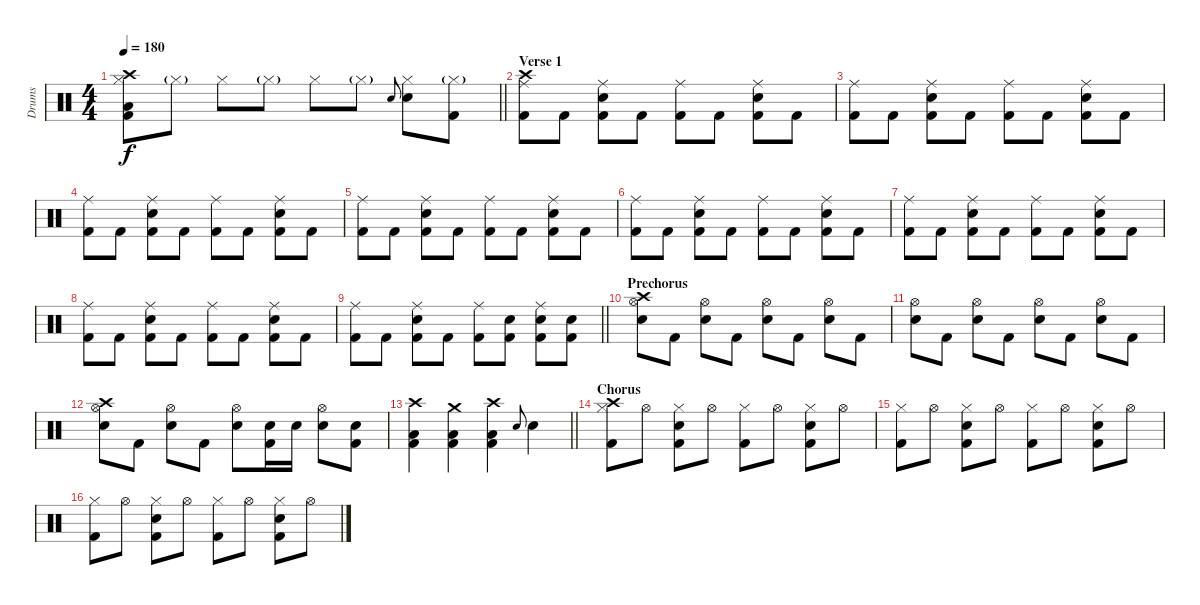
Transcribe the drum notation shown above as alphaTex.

\track ("Drums" "Drums") {instrument percussion}
\staff {score}
\articulation defaults
\ts (4 4)
\tempo 180
\clef neutral
\barLineRight lightlight
\ks c
("Crash high (hit)" "Hi-Hat (closed)" "Low Floor Tom (hit)" "Kick (hit) 2").8{dy f} "Hi-Hat (closed)"{g}.8 "Hi-Hat (closed)".8 "Hi-Hat (closed)"{g}.8 "Hi-Hat (closed)".8 "Hi-Hat (closed)"{g}.8 "Snare (hit) 2".8{gr onbeat} ("Hi-Hat (closed)" "Snare (hit) 2").8 ("Hi-Hat (closed)"{g} "Kick (hit) 2").8 |
\section ("" "Verse 1")
("Crash high (hit)" "Ride (middle)" "Kick (hit) 2").8 "Kick (hit) 2".8 ("Ride (middle)" "Snare (hit) 2" "Kick (hit) 2").8 "Kick (hit) 2".8 ("Ride (middle)" "Kick (hit) 2").8 "Kick (hit) 2".8 ("Ride (middle)" "Snare (hit) 2" "Kick (hit) 2").8 "Kick (hit) 2".8 |
("Ride (middle)" "Kick (hit) 2").8 "Kick (hit) 2".8 ("Ride (middle)" "Snare (hit) 2" "Kick (hit) 2").8 "Kick (hit) 2".8 ("Ride (middle)" "Kick (hit) 2").8 "Kick (hit) 2".8 ("Ride (middle)" "Snare (hit) 2" "Kick (hit) 2").8 "Kick (hit) 2".8 |
("Ride (middle)" "Kick (hit) 2").8 "Kick (hit) 2".8 ("Ride (middle)" "Snare (hit) 2" "Kick (hit) 2").8 "Kick (hit) 2".8 ("Ride (middle)" "Kick (hit) 2").8 "Kick (hit) 2".8 ("Ride (middle)" "Snare (hit) 2" "Kick (hit) 2").8 "Kick (hit) 2".8 |
("Ride (middle)" "Kick (hit) 2").8 "Kick (hit) 2".8 ("Ride (middle)" "Snare (hit) 2" "Kick (hit) 2").8 "Kick (hit) 2".8 ("Ride (middle)" "Kick (hit) 2").8 "Kick (hit) 2".8 ("Ride (middle)" "Snare (hit) 2" "Kick (hit) 2").8 "Kick (hit) 2".8 |
("Ride (middle)" "Kick (hit) 2").8 "Kick (hit) 2".8 ("Ride (middle)" "Snare (hit) 2" "Kick (hit) 2").8 "Kick (hit) 2".8 ("Ride (middle)" "Kick (hit) 2").8 "Kick (hit) 2".8 ("Ride (middle)" "Snare (hit) 2" "Kick (hit) 2").8 "Kick (hit) 2".8 |
("Ride (middle)" "Kick (hit) 2").8 "Kick (hit) 2".8 ("Ride (middle)" "Snare (hit) 2" "Kick (hit) 2").8 "Kick (hit) 2".8 ("Ride (middle)" "Kick (hit) 2").8 "Kick (hit) 2".8 ("Ride (middle)" "Snare (hit) 2" "Kick (hit) 2").8 "Kick (hit) 2".8 |
("Ride (middle)" "Kick (hit) 2").8 "Kick (hit) 2".8 ("Ride (middle)" "Snare (hit) 2" "Kick (hit) 2").8 "Kick (hit) 2".8 ("Ride (middle)" "Kick (hit) 2").8 "Kick (hit) 2".8 ("Ride (middle)" "Snare (hit) 2" "Kick (hit) 2").8 "Kick (hit) 2".8 |
\barLineRight lightlight
("Ride (middle)" "Kick (hit) 2").8 "Kick (hit) 2".8 ("Ride (middle)" "Snare (hit) 2" "Kick (hit) 2").8 "Kick (hit) 2".8 ("Ride (middle)" "Kick (hit) 2").8 ("Snare (hit) 2" "Kick (hit) 2").8 ("Ride (middle)" "Snare (hit) 2" "Kick (hit) 2").8 ("Snare (hit) 2" "Kick (hit) 2").8 |
\section ("" "Prechorus")
("Crash high (hit)" "Hi-Hat (open)" "Snare (hit) 2").8 "Kick (hit) 2".8 ("Hi-Hat (open)" "Snare (hit) 2").8 "Kick (hit) 2".8 ("Hi-Hat (open)" "Snare (hit) 2").8 "Kick (hit) 2".8 ("Hi-Hat (open)" "Snare (hit) 2").8 "Kick (hit) 2".8 |
("Hi-Hat (open)" "Snare (hit) 2").8 "Kick (hit) 2".8 ("Hi-Hat (open)" "Snare (hit) 2").8 "Kick (hit) 2".8 ("Hi-Hat (open)" "Snare (hit) 2").8 "Kick (hit) 2".8 ("Hi-Hat (open)" "Snare (hit) 2").8 "Kick (hit) 2".8 |
("Crash high (hit)" "Hi-Hat (open)" "Snare (hit) 2").8 "Kick (hit) 2".8 ("Hi-Hat (open)" "Snare (hit) 2").8 "Kick (hit) 2".8 ("Hi-Hat (open)" "Snare (hit) 2").8 ("Snare (hit) 2" "Kick (hit) 2").16 "Snare (hit) 2".16 ("Hi-Hat (open)" "Snare (hit) 2").8 ("Snare (hit) 2" "Kick (hit) 2").8 |
\barLineRight lightlight
("Crash high (hit)" "Low Floor Tom (hit)" "Kick (hit) 2").4 ("Crash medium (hit)" "Low Floor Tom (hit)" "Kick (hit) 2").4 ("Crash high (hit)" "Low Floor Tom (hit)" "Kick (hit) 2").4 "Snare (hit) 2".8{gr onbeat} "Snare (hit) 2".4 |
\section ("" "Chorus")
("Crash high (hit)" "Hi-Hat (closed)" "Kick (hit) 2").8 "Hi-Hat (open)".8 ("Hi-Hat (closed)" "Snare (hit) 2" "Kick (hit) 2").8 "Hi-Hat (open)".8 ("Hi-Hat (closed)" "Kick (hit) 2").8 "Hi-Hat (open)".8 ("Hi-Hat (closed)" "Snare (hit) 2" "Kick (hit) 2").8 "Hi-Hat (open)".8 |
("Hi-Hat (closed)" "Kick (hit) 2").8 "Hi-Hat (open)".8 ("Hi-Hat (closed)" "Snare (hit) 2" "Kick (hit) 2").8 "Hi-Hat (open)".8 ("Hi-Hat (closed)" "Kick (hit) 2").8 "Hi-Hat (open)".8 ("Hi-Hat (closed)" "Snare (hit) 2" "Kick (hit) 2").8 "Hi-Hat (open)".8 |
("Hi-Hat (closed)" "Kick (hit) 2").8 "Hi-Hat (open)".8 ("Hi-Hat (closed)" "Snare (hit) 2" "Kick (hit) 2").8 "Hi-Hat (open)".8 ("Hi-Hat (closed)" "Kick (hit) 2").8 "Hi-Hat (open)".8 ("Hi-Hat (closed)" "Snare (hit) 2" "Kick (hit) 2").8 "Hi-Hat (open)".8
